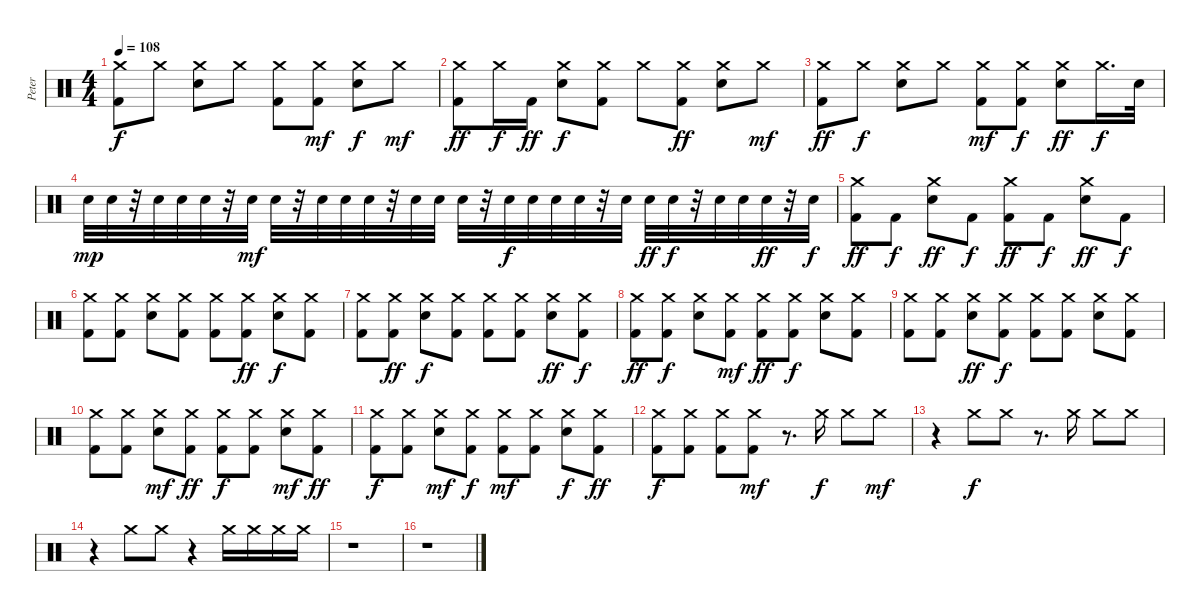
\track ("Peter" "Peter") {instrument percussion}
\staff {score}
\articulation defaults
\ts (4 4)
\tempo 108
\clef neutral
\ks c
("Kick (hit) 2" "Crash medium (hit)").8{dy f} "Crash medium (hit)".8 ("Crash medium (hit)" "Electric Snare (hit)").8 "Crash medium (hit)".8 ("Crash medium (hit)" "Kick (hit) 2").8 ("Kick (hit) 2" "Crash medium (hit)").8{dy mf} ("Crash medium (hit)" "Electric Snare (hit)").8{dy f} "Crash medium (hit)".8{dy mf} |
("Kick (hit) 2" "Crash medium (hit)").8{dy ff} "Crash medium (hit)".16{dy f} "Kick (hit) 2".16{dy ff} ("Crash medium (hit)" "Electric Snare (hit)").8{dy f} ("Kick (hit) 2" "Crash medium (hit)").8 "Crash medium (hit)".8 ("Crash medium (hit)" "Kick (hit) 2").8{dy ff} ("Crash medium (hit)" "Electric Snare (hit)").8 "Crash medium (hit)".8{dy mf} |
("Kick (hit) 2" "Crash medium (hit)").8{dy ff} "Crash medium (hit)".8{dy f} ("Crash medium (hit)" "Electric Snare (hit)").8 "Crash medium (hit)".8 ("Crash medium (hit)" "Kick (hit) 2").8{dy mf} ("Kick (hit) 2" "Crash medium (hit)").8{dy f} ("Electric Snare (hit)" "Crash medium (hit)").8{dy ff} "Crash medium (hit)".16{d dy f} "Electric Snare (hit)".32 |
"Electric Snare (hit)".32{dy mp} "Electric Snare (hit)".32 r.32 "Electric Snare (hit)".32 "Electric Snare (hit)".32 "Electric Snare (hit)".32 r.32 "Electric Snare (hit)".32{dy mf} "Electric Snare (hit)".32 r.32 "Electric Snare (hit)".32 "Electric Snare (hit)".32 "Electric Snare (hit)".32 r.32 "Electric Snare (hit)".32 "Electric Snare (hit)".32 "Electric Snare (hit)".32 r.32 "Electric Snare (hit)".32{dy f} "Electric Snare (hit)".32 "Electric Snare (hit)".32 "Electric Snare (hit)".32 r.32 "Electric Snare (hit)".32 "Electric Snare (hit)".32{dy ff} "Electric Snare (hit)".32{dy f} r.32 "Electric Snare (hit)".32 "Electric Snare (hit)".32 "Electric Snare (hit)".32{dy ff} r.32 "Electric Snare (hit)".32{dy f} |
("Crash medium (hit)" "Kick (hit) 2").8{dy ff} "Kick (hit) 2".8{dy f} ("Electric Snare (hit)" "Crash medium (hit)").8{dy ff} "Kick (hit) 2".8{dy f} ("Kick (hit) 2" "Crash medium (hit)").8{dy ff} "Kick (hit) 2".8{dy f} ("Crash medium (hit)" "Electric Snare (hit)").8{dy ff} "Kick (hit) 2".8{dy f} |
("Kick (hit) 2" "Crash medium (hit)").8 ("Crash medium (hit)" "Kick (hit) 2").8 ("Electric Snare (hit)" "Crash medium (hit)").8 ("Crash medium (hit)" "Kick (hit) 2").8 ("Kick (hit) 2" "Crash medium (hit)").8 ("Kick (hit) 2" "Crash medium (hit)").8{dy ff} ("Electric Snare (hit)" "Crash medium (hit)").8{dy f} ("Crash medium (hit)" "Kick (hit) 2").8 |
("Kick (hit) 2" "Crash medium (hit)").8 ("Kick (hit) 2" "Crash medium (hit)").8{dy ff} ("Crash medium (hit)" "Electric Snare (hit)").8{dy f} ("Kick (hit) 2" "Crash medium (hit)").8 ("Kick (hit) 2" "Crash medium (hit)").8 ("Kick (hit) 2" "Crash medium (hit)").8 ("Electric Snare (hit)" "Crash medium (hit)").8{dy ff} ("Crash medium (hit)" "Kick (hit) 2").8{dy f} |
("Kick (hit) 2" "Crash medium (hit)").8{dy ff} ("Kick (hit) 2" "Crash medium (hit)").8{dy f} ("Electric Snare (hit)" "Crash medium (hit)").8 ("Kick (hit) 2" "Crash medium (hit)").8{dy mf} ("Kick (hit) 2" "Crash medium (hit)").8{dy ff} ("Crash medium (hit)" "Kick (hit) 2").8{dy f} ("Electric Snare (hit)" "Crash medium (hit)").8 ("Kick (hit) 2" "Crash medium (hit)").8 |
("Crash medium (hit)" "Kick (hit) 2").8 ("Crash medium (hit)" "Kick (hit) 2").8 ("Electric Snare (hit)" "Crash medium (hit)").8{dy ff} ("Kick (hit) 2" "Crash medium (hit)").8{dy f} ("Kick (hit) 2" "Crash medium (hit)").8 ("Kick (hit) 2" "Crash medium (hit)").8 ("Crash medium (hit)" "Electric Snare (hit)").8 ("Kick (hit) 2" "Crash medium (hit)").8 |
("Kick (hit) 2" "Crash medium (hit)").8 ("Crash medium (hit)" "Kick (hit) 2").8 ("Crash medium (hit)" "Electric Snare (hit)").8{dy mf} ("Kick (hit) 2" "Crash medium (hit)").8{dy ff} ("Crash medium (hit)" "Kick (hit) 2").8{dy f} ("Crash medium (hit)" "Kick (hit) 2").8 ("Electric Snare (hit)" "Crash medium (hit)").8{dy mf} ("Crash medium (hit)" "Kick (hit) 2").8{dy ff} |
("Crash medium (hit)" "Kick (hit) 2").8{dy f} ("Kick (hit) 2" "Crash medium (hit)").8 ("Electric Snare (hit)" "Crash medium (hit)").8{dy mf} ("Crash medium (hit)" "Kick (hit) 2").8{dy f} ("Crash medium (hit)" "Kick (hit) 2").8{dy mf} ("Kick (hit) 2" "Crash medium (hit)").8 ("Electric Snare (hit)" "Crash medium (hit)").8{dy f} ("Kick (hit) 2" "Crash medium (hit)").8{dy ff} |
("Kick (hit) 2" "Crash medium (hit)").8{dy f} ("Kick (hit) 2" "Crash medium (hit)").8 ("Crash medium (hit)" "Kick (hit) 2").8 ("Kick (hit) 2" "Crash medium (hit)").8{dy mf} r.8{d} "Crash medium (hit)".16{dy f} "Crash medium (hit)".8 "Crash medium (hit)".8{dy mf} |
r.4 "Crash medium (hit)".8{dy f} "Crash medium (hit)".8 r.8{d} "Crash medium (hit)".16 "Crash medium (hit)".8 "Crash medium (hit)".8 |
r.4 "Crash medium (hit)".8 "Crash medium (hit)".8 r.4 "Crash medium (hit)".16 "Crash medium (hit)".16 "Crash medium (hit)".16 "Crash medium (hit)".16 |
r.1 |
r.1
